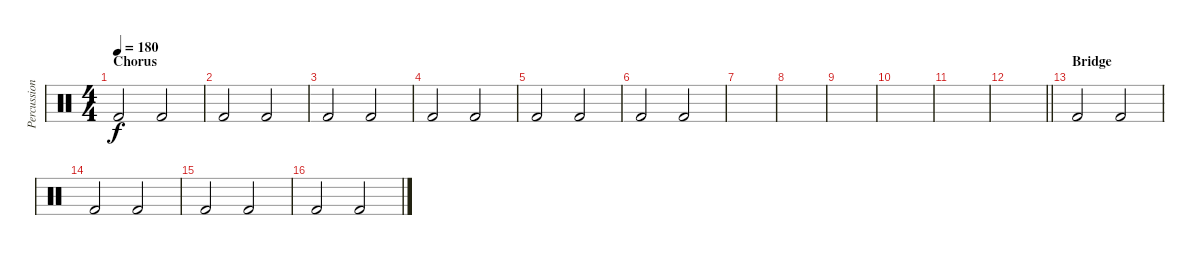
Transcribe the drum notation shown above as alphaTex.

\track ("Percussion" "Percussion") {instrument percussion}
\staff {score}
\articulation defaults
\ts (4 4)
\section ("" "Chorus")
\tempo 180
\clef neutral
\ks c "Kick (hit) 2".2{dy f} "Kick (hit) 2".2
|
"Kick (hit) 2".2 "Kick (hit) 2".2 |
"Kick (hit) 2".2 "Kick (hit) 2".2 |
"Kick (hit) 2".2 "Kick (hit) 2".2 |
"Kick (hit) 2".2 "Kick (hit) 2".2 |
"Kick (hit) 2".2 "Kick (hit) 2".2 |
|
|
|
|
|
\barLineRight lightlight
|
\section ("" "Bridge")
"Kick (hit) 2".2 "Kick (hit) 2".2 |
"Kick (hit) 2".2 "Kick (hit) 2".2 |
"Kick (hit) 2".2 "Kick (hit) 2".2 |
"Kick (hit) 2".2 "Kick (hit) 2".2
